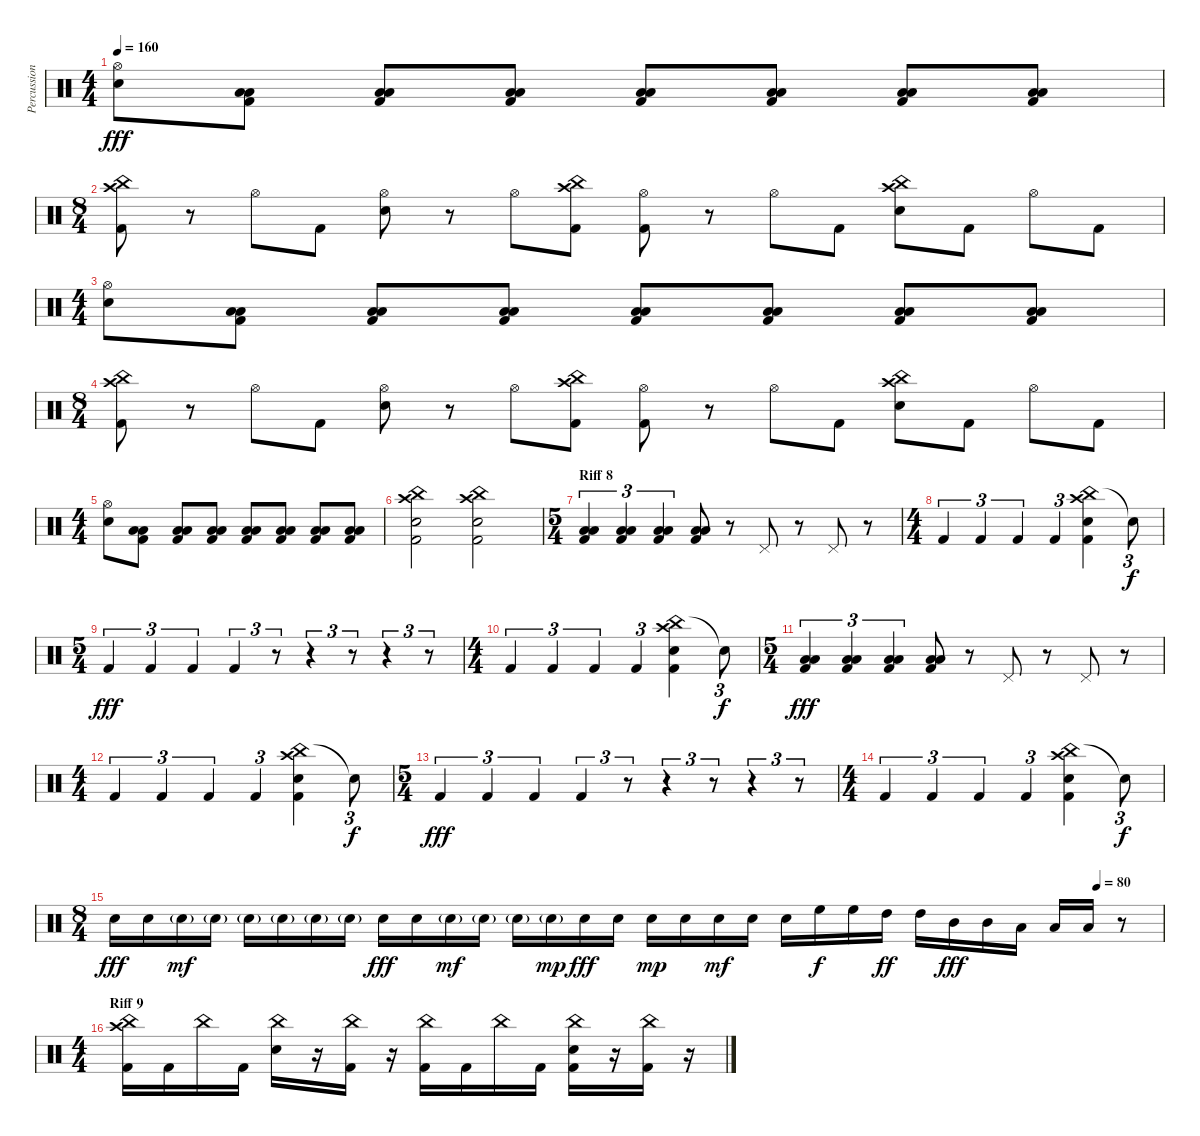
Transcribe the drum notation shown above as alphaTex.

\track ("Percussion" "Percussion") {instrument percussion}
\staff {score}
\articulation defaults
\ts (4 4)
\tempo 160
\clef neutral
\ks c
("Hi-Hat (open)" "Electric Snare (hit)").8{dy fff} ("Low Floor Tom (hit)" "Low Floor Tom (hit)" "Kick (hit) 2").8 ("Low Floor Tom (hit)" "Low Floor Tom (hit)" "Kick (hit) 2").8 ("Low Floor Tom (hit)" "Low Floor Tom (hit)" "Kick (hit) 2").8 ("Low Floor Tom (hit)" "Low Floor Tom (hit)" "Kick (hit) 2").8 ("Low Floor Tom (hit)" "Low Floor Tom (hit)" "Kick (hit) 2").8 ("Low Floor Tom (hit)" "Low Floor Tom (hit)" "Kick (hit) 2").8 ("Low Floor Tom (hit)" "Low Floor Tom (hit)" "Kick (hit) 2").8 |
\ts (8 4)
("China (hit)" "Crash high (hit)" "Kick (hit) 2").8 r.8 "Hi-Hat (open)".8 "Kick (hit) 2".8 ("Hi-Hat (open)" "Electric Snare (hit)").8 r.8 "Hi-Hat (open)".8 ("China (hit)" "Crash high (hit)" "Kick (hit) 2").8 ("Hi-Hat (open)" "Kick (hit) 2").8 r.8 "Hi-Hat (open)".8 "Kick (hit) 2".8 ("China (hit)" "Crash high (hit)" "Electric Snare (hit)").8 "Kick (hit) 2".8 "Hi-Hat (open)".8 "Kick (hit) 2".8 |
\ts (4 4)
("Hi-Hat (open)" "Electric Snare (hit)").8 ("Low Floor Tom (hit)" "Low Floor Tom (hit)" "Kick (hit) 2").8 ("Low Floor Tom (hit)" "Low Floor Tom (hit)" "Kick (hit) 2").8 ("Low Floor Tom (hit)" "Low Floor Tom (hit)" "Kick (hit) 2").8 ("Low Floor Tom (hit)" "Low Floor Tom (hit)" "Kick (hit) 2").8 ("Low Floor Tom (hit)" "Low Floor Tom (hit)" "Kick (hit) 2").8 ("Low Floor Tom (hit)" "Low Floor Tom (hit)" "Kick (hit) 2").8 ("Low Floor Tom (hit)" "Low Floor Tom (hit)" "Kick (hit) 2").8 |
\ts (8 4)
("China (hit)" "Crash high (hit)" "Kick (hit) 2").8 r.8 "Hi-Hat (open)".8 "Kick (hit) 2".8 ("Hi-Hat (open)" "Electric Snare (hit)").8 r.8 "Hi-Hat (open)".8 ("China (hit)" "Crash high (hit)" "Kick (hit) 2").8 ("Hi-Hat (open)" "Kick (hit) 2").8 r.8 "Hi-Hat (open)".8 "Kick (hit) 2".8 ("China (hit)" "Crash high (hit)" "Electric Snare (hit)").8 "Kick (hit) 2".8 "Hi-Hat (open)".8 "Kick (hit) 2".8 |
\ts (4 4)
("Hi-Hat (open)" "Electric Snare (hit)").8 ("Low Floor Tom (hit)" "Low Floor Tom (hit)" "Kick (hit) 2").8 ("Low Floor Tom (hit)" "Low Floor Tom (hit)" "Kick (hit) 2").8 ("Low Floor Tom (hit)" "Low Floor Tom (hit)" "Kick (hit) 2").8 ("Low Floor Tom (hit)" "Low Floor Tom (hit)" "Kick (hit) 2").8 ("Low Floor Tom (hit)" "Low Floor Tom (hit)" "Kick (hit) 2").8 ("Low Floor Tom (hit)" "Low Floor Tom (hit)" "Kick (hit) 2").8 ("Low Floor Tom (hit)" "Low Floor Tom (hit)" "Kick (hit) 2").8 |
("China (hit)" "Crash high (hit)" "Electric Snare (hit)" "Kick (hit) 2").2 ("China (hit)" "Crash high (hit)" "Electric Snare (hit)" "Kick (hit) 2").2 |
\ts (5 4)
\section ("" "Riff 8")
("Low Floor Tom (hit)" "Low Floor Tom (hit)" "Kick (hit) 2").4{tu (3 2)} ("Low Floor Tom (hit)" "Low Floor Tom (hit)" "Kick (hit) 2").4{tu (3 2)} ("Low Floor Tom (hit)" "Low Floor Tom (hit)" "Kick (hit) 2").4{tu (3 2)} ("Low Floor Tom (hit)" "Low Floor Tom (hit)" "Kick (hit) 2").8 r.8 "Pedal Hi-Hat (hit)".8 r.8 "Pedal Hi-Hat (hit)".8 r.8 |
\ts (4 4)
"Kick (hit) 2".4{tu (3 2)} "Kick (hit) 2".4{tu (3 2)} "Kick (hit) 2".4{tu (3 2)} "Kick (hit) 2".4{tu (3 2)} ("China (hit)" "Crash high (hit)" "Electric Snare (hit)" "Kick (hit) 2").4 "Snare (hit)"{t}.8{tu (3 2) dy f} |
\ts (5 4)
"Kick (hit) 2".4{tu (3 2) dy fff} "Kick (hit) 2".4{tu (3 2)} "Kick (hit) 2".4{tu (3 2)} "Kick (hit) 2".4{tu (3 2)} r.8{tu (3 2)} r.4{tu (3 2)} r.8{tu (3 2)} r.4{tu (3 2)} r.8{tu (3 2)} |
\ts (4 4)
"Kick (hit) 2".4{tu (3 2)} "Kick (hit) 2".4{tu (3 2)} "Kick (hit) 2".4{tu (3 2)} "Kick (hit) 2".4{tu (3 2)} ("China (hit)" "Crash high (hit)" "Electric Snare (hit)" "Kick (hit) 2").4 "Snare (hit)"{t}.8{tu (3 2) dy f} |
\ts (5 4)
("Low Floor Tom (hit)" "Low Floor Tom (hit)" "Kick (hit) 2").4{tu (3 2) dy fff} ("Low Floor Tom (hit)" "Low Floor Tom (hit)" "Kick (hit) 2").4{tu (3 2)} ("Low Floor Tom (hit)" "Low Floor Tom (hit)" "Kick (hit) 2").4{tu (3 2)} ("Low Floor Tom (hit)" "Low Floor Tom (hit)" "Kick (hit) 2").8 r.8 "Pedal Hi-Hat (hit)".8 r.8 "Pedal Hi-Hat (hit)".8 r.8 |
\ts (4 4)
"Kick (hit) 2".4{tu (3 2)} "Kick (hit) 2".4{tu (3 2)} "Kick (hit) 2".4{tu (3 2)} "Kick (hit) 2".4{tu (3 2)} ("China (hit)" "Crash high (hit)" "Electric Snare (hit)" "Kick (hit) 2").4 "Snare (hit)"{t}.8{tu (3 2) dy f} |
\ts (5 4)
"Kick (hit) 2".4{tu (3 2) dy fff} "Kick (hit) 2".4{tu (3 2)} "Kick (hit) 2".4{tu (3 2)} "Kick (hit) 2".4{tu (3 2)} r.8{tu (3 2)} r.4{tu (3 2)} r.8{tu (3 2)} r.4{tu (3 2)} r.8{tu (3 2)} |
\ts (4 4)
"Kick (hit) 2".4{tu (3 2)} "Kick (hit) 2".4{tu (3 2)} "Kick (hit) 2".4{tu (3 2)} "Kick (hit) 2".4{tu (3 2)} ("China (hit)" "Crash high (hit)" "Electric Snare (hit)" "Kick (hit) 2").4 "Snare (hit)"{t}.8{tu (3 2) dy f} |
\ts (8 4)
\tempo (80 0.9375)
"Electric Snare (hit)".16{dy fff} "Electric Snare (hit)".16 "Electric Snare (hit)"{g}.16{dy mf} "Electric Snare (hit)"{g}.16 "Electric Snare (hit)"{g}.16 "Electric Snare (hit)"{g}.16 "Electric Snare (hit)"{g}.16 "Electric Snare (hit)"{g}.16 "Electric Snare (hit)".16{dy fff} "Electric Snare (hit)".16 "Electric Snare (hit)"{g}.16{dy mf} "Electric Snare (hit)"{g}.16 "Electric Snare (hit)"{g}.16 "Electric Snare (hit)"{g}.16{dy mp} "Electric Snare (hit)".16{dy fff} "Electric Snare (hit)".16 "Electric Snare (hit)".16{dy mp} "Electric Snare (hit)".16 "Electric Snare (hit)".16{dy mf} "Electric Snare (hit)".16 "Electric Snare (hit)".16 "High Floor Tom (hit)".16{dy f} "High Floor Tom (hit)".16 "High Tom (hit)".16{dy ff} "High Tom (hit)".16 "Mid Tom (hit)".16{dy fff} "Mid Tom (hit)".16 "Low Tom (hit)".16 "Low Tom (hit)".16 "Low Floor Tom (hit)".16 r.8 |
\ts (4 4)
\section ("" "Riff 9")
("China (hit)" "Crash high (hit)" "Kick (hit) 2").16 "Kick (hit) 2".16 "China (hit)".16 "Kick (hit) 2".16 ("China (hit)" "Electric Snare (hit)").16 r.16 ("China (hit)" "Kick (hit) 2").16 r.16 ("China (hit)" "Kick (hit) 2").16 "Kick (hit) 2".16 "China (hit)".16 "Kick (hit) 2".16 ("China (hit)" "Electric Snare (hit)" "Kick (hit) 2").16 r.16 ("China (hit)" "Kick (hit) 2").16 r.16
